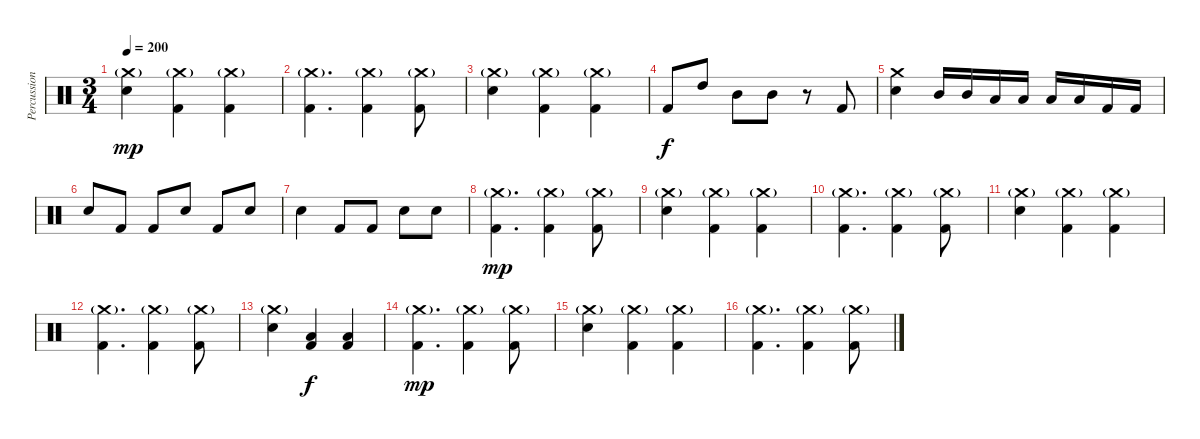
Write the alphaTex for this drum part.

\track ("Percussions" "Percussion") {instrument percussion}
\staff {score}
\articulation defaults
\ts (3 4)
\tempo 200
\clef neutral
\ks c
("Crash medium (hit)"{g} "Electric Snare (hit)").4{dy mp} ("Crash medium (hit)"{g} "Kick (hit) 2").4 ("Crash medium (hit)"{g} "Kick (hit) 2").4 |
("Crash medium (hit)"{g} "Kick (hit) 2").4{d} ("Crash medium (hit)"{g} "Kick (hit) 2").4 ("Crash medium (hit)"{g} "Kick (hit) 2").8 |
("Crash medium (hit)"{g} "Electric Snare (hit)").4 ("Crash medium (hit)"{g} "Kick (hit) 2").4 ("Crash medium (hit)"{g} "Kick (hit) 2").4 |
"Kick (hit) 2".8{dy f} "High Tom (hit)".8 "Mid Tom (hit)".8 "Mid Tom (hit)".8 r.8 "Kick (hit) 2".8 |
("Crash medium (hit)" "Electric Snare (hit)").4 "Mid Tom (hit)".16 "Mid Tom (hit)".16 "Low Tom (hit)".16 "Low Tom (hit)".16 "Low Floor Tom (hit)".16 "Low Floor Tom (hit)".16 "Kick (hit) 2".16 "Kick (hit) 2".16 |
"Electric Snare (hit)".8 "Kick (hit) 2".8 "Kick (hit) 2".8 "Electric Snare (hit)".8 "Kick (hit) 2".8 "Electric Snare (hit)".8 |
"Electric Snare (hit)".4 "Kick (hit) 2".8 "Kick (hit) 2".8 "Electric Snare (hit)".8 "Electric Snare (hit)".8 |
("Crash medium (hit)"{g} "Kick (hit) 2").4{d dy mp} ("Crash medium (hit)"{g} "Kick (hit) 2").4 ("Crash medium (hit)"{g} "Kick (hit) 2").8 |
("Crash medium (hit)"{g} "Electric Snare (hit)").4 ("Crash medium (hit)"{g} "Kick (hit) 2").4 ("Crash medium (hit)"{g} "Kick (hit) 2").4 |
("Crash medium (hit)"{g} "Kick (hit) 2").4{d} ("Crash medium (hit)"{g} "Kick (hit) 2").4 ("Crash medium (hit)"{g} "Kick (hit) 2").8 |
("Crash medium (hit)"{g} "Electric Snare (hit)").4 ("Crash medium (hit)"{g} "Kick (hit) 2").4 ("Crash medium (hit)"{g} "Kick (hit) 2").4 |
("Crash medium (hit)"{g} "Kick (hit) 2").4{d} ("Crash medium (hit)"{g} "Kick (hit) 2").4 ("Crash medium (hit)"{g} "Kick (hit) 2").8 |
("Crash medium (hit)"{g} "Electric Snare (hit)").4 ("Low Tom (hit)" "Kick (hit) 2").4{dy f} ("Low Tom (hit)" "Kick (hit) 2").4 |
("Crash medium (hit)"{g} "Kick (hit) 2").4{d dy mp} ("Crash medium (hit)"{g} "Kick (hit) 2").4 ("Crash medium (hit)"{g} "Kick (hit) 2").8 |
("Crash medium (hit)"{g} "Electric Snare (hit)").4 ("Crash medium (hit)"{g} "Kick (hit) 2").4 ("Crash medium (hit)"{g} "Kick (hit) 2").4 |
("Crash medium (hit)"{g} "Kick (hit) 2").4{d} ("Crash medium (hit)"{g} "Kick (hit) 2").4 ("Crash medium (hit)"{g} "Kick (hit) 2").8
